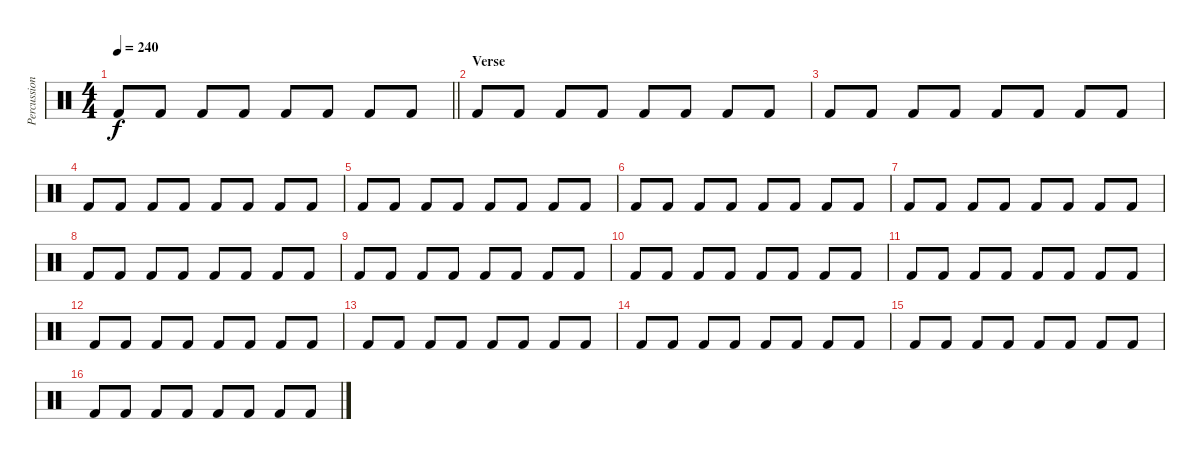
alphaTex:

\track ("Percussion" "Percussion") {instrument percussion}
\staff {score}
\articulation defaults
\ts (4 4)
\tempo 240
\clef neutral
\barLineRight lightlight
\ks c "Kick (hit) 2".8{dy f} "Kick (hit) 2".8 "Kick (hit) 2".8 "Kick (hit) 2".8 "Kick (hit) 2".8 "Kick (hit) 2".8 "Kick (hit) 2".8 "Kick (hit) 2".8
|
\section ("" "Verse ")
"Kick (hit) 2".8 "Kick (hit) 2".8 "Kick (hit) 2".8 "Kick (hit) 2".8 "Kick (hit) 2".8 "Kick (hit) 2".8 "Kick (hit) 2".8 "Kick (hit) 2".8 |
"Kick (hit) 2".8 "Kick (hit) 2".8 "Kick (hit) 2".8 "Kick (hit) 2".8 "Kick (hit) 2".8 "Kick (hit) 2".8 "Kick (hit) 2".8 "Kick (hit) 2".8 |
"Kick (hit) 2".8 "Kick (hit) 2".8 "Kick (hit) 2".8 "Kick (hit) 2".8 "Kick (hit) 2".8 "Kick (hit) 2".8 "Kick (hit) 2".8 "Kick (hit) 2".8 |
"Kick (hit) 2".8 "Kick (hit) 2".8 "Kick (hit) 2".8 "Kick (hit) 2".8 "Kick (hit) 2".8 "Kick (hit) 2".8 "Kick (hit) 2".8 "Kick (hit) 2".8 |
"Kick (hit) 2".8 "Kick (hit) 2".8 "Kick (hit) 2".8 "Kick (hit) 2".8 "Kick (hit) 2".8 "Kick (hit) 2".8 "Kick (hit) 2".8 "Kick (hit) 2".8 |
"Kick (hit) 2".8 "Kick (hit) 2".8 "Kick (hit) 2".8 "Kick (hit) 2".8 "Kick (hit) 2".8 "Kick (hit) 2".8 "Kick (hit) 2".8 "Kick (hit) 2".8 |
"Kick (hit) 2".8 "Kick (hit) 2".8 "Kick (hit) 2".8 "Kick (hit) 2".8 "Kick (hit) 2".8 "Kick (hit) 2".8 "Kick (hit) 2".8 "Kick (hit) 2".8 |
"Kick (hit) 2".8 "Kick (hit) 2".8 "Kick (hit) 2".8 "Kick (hit) 2".8 "Kick (hit) 2".8 "Kick (hit) 2".8 "Kick (hit) 2".8 "Kick (hit) 2".8 |
"Kick (hit) 2".8 "Kick (hit) 2".8 "Kick (hit) 2".8 "Kick (hit) 2".8 "Kick (hit) 2".8 "Kick (hit) 2".8 "Kick (hit) 2".8 "Kick (hit) 2".8 |
"Kick (hit) 2".8 "Kick (hit) 2".8 "Kick (hit) 2".8 "Kick (hit) 2".8 "Kick (hit) 2".8 "Kick (hit) 2".8 "Kick (hit) 2".8 "Kick (hit) 2".8 |
"Kick (hit) 2".8 "Kick (hit) 2".8 "Kick (hit) 2".8 "Kick (hit) 2".8 "Kick (hit) 2".8 "Kick (hit) 2".8 "Kick (hit) 2".8 "Kick (hit) 2".8 |
"Kick (hit) 2".8 "Kick (hit) 2".8 "Kick (hit) 2".8 "Kick (hit) 2".8 "Kick (hit) 2".8 "Kick (hit) 2".8 "Kick (hit) 2".8 "Kick (hit) 2".8 |
"Kick (hit) 2".8 "Kick (hit) 2".8 "Kick (hit) 2".8 "Kick (hit) 2".8 "Kick (hit) 2".8 "Kick (hit) 2".8 "Kick (hit) 2".8 "Kick (hit) 2".8 |
"Kick (hit) 2".8 "Kick (hit) 2".8 "Kick (hit) 2".8 "Kick (hit) 2".8 "Kick (hit) 2".8 "Kick (hit) 2".8 "Kick (hit) 2".8 "Kick (hit) 2".8 |
"Kick (hit) 2".8 "Kick (hit) 2".8 "Kick (hit) 2".8 "Kick (hit) 2".8 "Kick (hit) 2".8 "Kick (hit) 2".8 "Kick (hit) 2".8 "Kick (hit) 2".8
